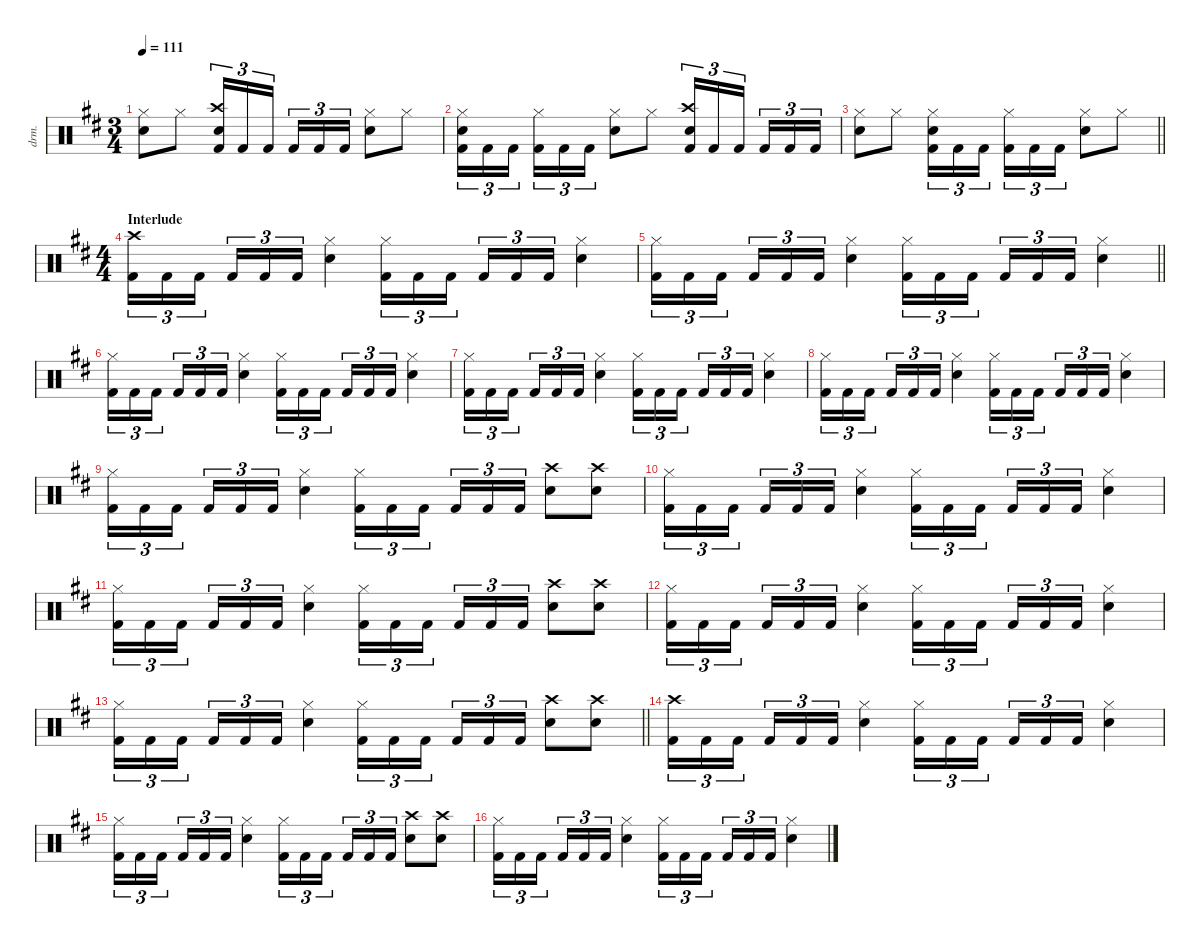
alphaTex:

\defaultSystemsLayout 4
\hideDynamics
\bracketExtendMode nobrackets
\otherSystemsTrackNameOrientation horizontal
\track ("Lars Ulrich" "drm.") {defaultSystemsLayout 4 instrument percussion}
\staff {score}
\articulation defaults
\ts (3 4)
\tempo 111
\clef neutral
\ks bminor
("Hi-Hat (closed)"{acc forcenatural} "Snare (hit) 2"{acc forcenatural}).8{dy f} "Hi-Hat (closed)"{acc forcenatural}.8 ("Crash high (hit)"{acc forcenatural} "Snare (hit) 2"{acc forcenatural} "Kick (hit) 2"{acc forcenatural}).16{tu (3 2)} "Kick (hit) 2"{acc forcenatural}.16{tu (3 2)} "Kick (hit) 2"{acc forcenatural}.16{tu (3 2)} "Kick (hit) 2"{acc forcenatural}.16{tu (3 2)} "Kick (hit) 2"{acc forcenatural}.16{tu (3 2)} "Kick (hit) 2"{acc forcenatural}.16{tu (3 2)} ("Hi-Hat (closed)"{acc forcenatural} "Snare (hit) 2"{acc forcenatural}).8 "Hi-Hat (closed)"{acc forcenatural}.8 |
("Hi-Hat (closed)"{acc forcenatural} "Snare (hit) 2"{acc forcenatural} "Kick (hit) 2"{acc forcenatural}).16{tu (3 2)} "Kick (hit) 2"{acc forcenatural}.16{tu (3 2)} "Kick (hit) 2"{acc forcenatural}.16{tu (3 2)} ("Hi-Hat (closed)"{acc forcenatural} "Kick (hit) 2"{acc forcenatural}).16{tu (3 2)} "Kick (hit) 2"{acc forcenatural}.16{tu (3 2)} "Kick (hit) 2"{acc forcenatural}.16{tu (3 2)} ("Hi-Hat (closed)"{acc forcenatural} "Snare (hit) 2"{acc forcenatural}).8 "Hi-Hat (closed)"{acc forcenatural}.8 ("Crash high (hit)"{acc forcenatural} "Snare (hit) 2"{acc forcenatural} "Kick (hit) 2"{acc forcenatural}).16{tu (3 2)} "Kick (hit) 2"{acc forcenatural}.16{tu (3 2)} "Kick (hit) 2"{acc forcenatural}.16{tu (3 2)} "Kick (hit) 2"{acc forcenatural}.16{tu (3 2)} "Kick (hit) 2"{acc forcenatural}.16{tu (3 2)} "Kick (hit) 2"{acc forcenatural}.16{tu (3 2)} |
\barLineRight lightlight
("Hi-Hat (closed)"{acc forcenatural} "Snare (hit) 2"{acc forcenatural}).8 "Hi-Hat (closed)"{acc forcenatural}.8 ("Hi-Hat (closed)"{acc forcenatural} "Snare (hit) 2"{acc forcenatural} "Kick (hit) 2"{acc forcenatural}).16{tu (3 2)} "Kick (hit) 2"{acc forcenatural}.16{tu (3 2)} "Kick (hit) 2"{acc forcenatural}.16{tu (3 2)} ("Hi-Hat (closed)"{acc forcenatural} "Kick (hit) 2"{acc forcenatural}).16{tu (3 2)} "Kick (hit) 2"{acc forcenatural}.16{tu (3 2)} "Kick (hit) 2"{acc forcenatural}.16{tu (3 2)} ("Hi-Hat (closed)"{acc forcenatural} "Snare (hit) 2"{acc forcenatural}).8 "Hi-Hat (closed)"{acc forcenatural}.8 |
\ts (4 4)
\beaming (8 2 2 2 2)
\section ("" "Interlude")
("Crash high (hit)"{acc forcenatural} "Kick (hit) 2"{acc forcenatural}).16{tu (3 2)} "Kick (hit) 2"{acc forcenatural}.16{tu (3 2)} "Kick (hit) 2"{acc forcenatural}.16{tu (3 2)} "Kick (hit) 2"{acc forcenatural}.16{tu (3 2)} "Kick (hit) 2"{acc forcenatural}.16{tu (3 2)} "Kick (hit) 2"{acc forcenatural}.16{tu (3 2)} ("Hi-Hat (closed)"{acc forcenatural} "Snare (hit) 2"{acc forcenatural}).4 ("Hi-Hat (closed)"{acc forcenatural} "Kick (hit) 2"{acc forcenatural}).16{tu (3 2)} "Kick (hit) 2"{acc forcenatural}.16{tu (3 2)} "Kick (hit) 2"{acc forcenatural}.16{tu (3 2)} "Kick (hit) 2"{acc forcenatural}.16{tu (3 2)} "Kick (hit) 2"{acc forcenatural}.16{tu (3 2)} "Kick (hit) 2"{acc forcenatural}.16{tu (3 2)} ("Hi-Hat (closed)"{acc forcenatural} "Snare (hit) 2"{acc forcenatural}).4 |
\barLineRight lightlight
("Hi-Hat (closed)"{acc forcenatural} "Kick (hit) 2"{acc forcenatural}).16{tu (3 2)} "Kick (hit) 2"{acc forcenatural}.16{tu (3 2)} "Kick (hit) 2"{acc forcenatural}.16{tu (3 2)} "Kick (hit) 2"{acc forcenatural}.16{tu (3 2)} "Kick (hit) 2"{acc forcenatural}.16{tu (3 2)} "Kick (hit) 2"{acc forcenatural}.16{tu (3 2)} ("Hi-Hat (closed)"{acc forcenatural} "Snare (hit) 2"{acc forcenatural}).4 ("Hi-Hat (closed)"{acc forcenatural} "Kick (hit) 2"{acc forcenatural}).16{tu (3 2)} "Kick (hit) 2"{acc forcenatural}.16{tu (3 2)} "Kick (hit) 2"{acc forcenatural}.16{tu (3 2)} "Kick (hit) 2"{acc forcenatural}.16{tu (3 2)} "Kick (hit) 2"{acc forcenatural}.16{tu (3 2)} "Kick (hit) 2"{acc forcenatural}.16{tu (3 2)} ("Hi-Hat (closed)"{acc forcenatural} "Snare (hit) 2"{acc forcenatural}).4 |
("Hi-Hat (closed)"{acc forcenatural} "Kick (hit) 2"{acc forcenatural}).16{tu (3 2)} "Kick (hit) 2"{acc forcenatural}.16{tu (3 2)} "Kick (hit) 2"{acc forcenatural}.16{tu (3 2)} "Kick (hit) 2"{acc forcenatural}.16{tu (3 2)} "Kick (hit) 2"{acc forcenatural}.16{tu (3 2)} "Kick (hit) 2"{acc forcenatural}.16{tu (3 2)} ("Hi-Hat (closed)"{acc forcenatural} "Snare (hit) 2"{acc forcenatural}).4 ("Hi-Hat (closed)"{acc forcenatural} "Kick (hit) 2"{acc forcenatural}).16{tu (3 2)} "Kick (hit) 2"{acc forcenatural}.16{tu (3 2)} "Kick (hit) 2"{acc forcenatural}.16{tu (3 2)} "Kick (hit) 2"{acc forcenatural}.16{tu (3 2)} "Kick (hit) 2"{acc forcenatural}.16{tu (3 2)} "Kick (hit) 2"{acc forcenatural}.16{tu (3 2)} ("Hi-Hat (closed)"{acc forcenatural} "Snare (hit) 2"{acc forcenatural}).4 |
("Hi-Hat (closed)"{acc forcenatural} "Kick (hit) 2"{acc forcenatural}).16{tu (3 2)} "Kick (hit) 2"{acc forcenatural}.16{tu (3 2)} "Kick (hit) 2"{acc forcenatural}.16{tu (3 2)} "Kick (hit) 2"{acc forcenatural}.16{tu (3 2)} "Kick (hit) 2"{acc forcenatural}.16{tu (3 2)} "Kick (hit) 2"{acc forcenatural}.16{tu (3 2)} ("Hi-Hat (closed)"{acc forcenatural} "Snare (hit) 2"{acc forcenatural}).4 ("Hi-Hat (closed)"{acc forcenatural} "Kick (hit) 2"{acc forcenatural}).16{tu (3 2)} "Kick (hit) 2"{acc forcenatural}.16{tu (3 2)} "Kick (hit) 2"{acc forcenatural}.16{tu (3 2)} "Kick (hit) 2"{acc forcenatural}.16{tu (3 2)} "Kick (hit) 2"{acc forcenatural}.16{tu (3 2)} "Kick (hit) 2"{acc forcenatural}.16{tu (3 2)} ("Hi-Hat (closed)"{acc forcenatural} "Snare (hit) 2"{acc forcenatural}).4 |
("Hi-Hat (closed)"{acc forcenatural} "Kick (hit) 2"{acc forcenatural}).16{tu (3 2)} "Kick (hit) 2"{acc forcenatural}.16{tu (3 2)} "Kick (hit) 2"{acc forcenatural}.16{tu (3 2)} "Kick (hit) 2"{acc forcenatural}.16{tu (3 2)} "Kick (hit) 2"{acc forcenatural}.16{tu (3 2)} "Kick (hit) 2"{acc forcenatural}.16{tu (3 2)} ("Hi-Hat (closed)"{acc forcenatural} "Snare (hit) 2"{acc forcenatural}).4 ("Hi-Hat (closed)"{acc forcenatural} "Kick (hit) 2"{acc forcenatural}).16{tu (3 2)} "Kick (hit) 2"{acc forcenatural}.16{tu (3 2)} "Kick (hit) 2"{acc forcenatural}.16{tu (3 2)} "Kick (hit) 2"{acc forcenatural}.16{tu (3 2)} "Kick (hit) 2"{acc forcenatural}.16{tu (3 2)} "Kick (hit) 2"{acc forcenatural}.16{tu (3 2)} ("Hi-Hat (closed)"{acc forcenatural} "Snare (hit) 2"{acc forcenatural}).4 |
("Hi-Hat (closed)"{acc forcenatural} "Kick (hit) 2"{acc forcenatural}).16{tu (3 2)} "Kick (hit) 2"{acc forcenatural}.16{tu (3 2)} "Kick (hit) 2"{acc forcenatural}.16{tu (3 2)} "Kick (hit) 2"{acc forcenatural}.16{tu (3 2)} "Kick (hit) 2"{acc forcenatural}.16{tu (3 2)} "Kick (hit) 2"{acc forcenatural}.16{tu (3 2)} ("Hi-Hat (closed)"{acc forcenatural} "Snare (hit) 2"{acc forcenatural}).4 ("Hi-Hat (closed)"{acc forcenatural} "Kick (hit) 2"{acc forcenatural}).16{tu (3 2)} "Kick (hit) 2"{acc forcenatural}.16{tu (3 2)} "Kick (hit) 2"{acc forcenatural}.16{tu (3 2)} "Kick (hit) 2"{acc forcenatural}.16{tu (3 2)} "Kick (hit) 2"{acc forcenatural}.16{tu (3 2)} "Kick (hit) 2"{acc forcenatural}.16{tu (3 2)} ("Crash high (hit)"{acc forcenatural} "Snare (hit) 2"{acc forcenatural}).8 ("Crash high (hit)"{acc forcenatural} "Snare (hit) 2"{acc forcenatural}).8 |
("Hi-Hat (closed)"{acc forcenatural} "Kick (hit) 2"{acc forcenatural}).16{tu (3 2)} "Kick (hit) 2"{acc forcenatural}.16{tu (3 2)} "Kick (hit) 2"{acc forcenatural}.16{tu (3 2)} "Kick (hit) 2"{acc forcenatural}.16{tu (3 2)} "Kick (hit) 2"{acc forcenatural}.16{tu (3 2)} "Kick (hit) 2"{acc forcenatural}.16{tu (3 2)} ("Hi-Hat (closed)"{acc forcenatural} "Snare (hit) 2"{acc forcenatural}).4 ("Hi-Hat (closed)"{acc forcenatural} "Kick (hit) 2"{acc forcenatural}).16{tu (3 2)} "Kick (hit) 2"{acc forcenatural}.16{tu (3 2)} "Kick (hit) 2"{acc forcenatural}.16{tu (3 2)} "Kick (hit) 2"{acc forcenatural}.16{tu (3 2)} "Kick (hit) 2"{acc forcenatural}.16{tu (3 2)} "Kick (hit) 2"{acc forcenatural}.16{tu (3 2)} ("Hi-Hat (closed)"{acc forcenatural} "Snare (hit) 2"{acc forcenatural}).4 |
("Hi-Hat (closed)"{acc forcenatural} "Kick (hit) 2"{acc forcenatural}).16{tu (3 2)} "Kick (hit) 2"{acc forcenatural}.16{tu (3 2)} "Kick (hit) 2"{acc forcenatural}.16{tu (3 2)} "Kick (hit) 2"{acc forcenatural}.16{tu (3 2)} "Kick (hit) 2"{acc forcenatural}.16{tu (3 2)} "Kick (hit) 2"{acc forcenatural}.16{tu (3 2)} ("Hi-Hat (closed)"{acc forcenatural} "Snare (hit) 2"{acc forcenatural}).4 ("Hi-Hat (closed)"{acc forcenatural} "Kick (hit) 2"{acc forcenatural}).16{tu (3 2)} "Kick (hit) 2"{acc forcenatural}.16{tu (3 2)} "Kick (hit) 2"{acc forcenatural}.16{tu (3 2)} "Kick (hit) 2"{acc forcenatural}.16{tu (3 2)} "Kick (hit) 2"{acc forcenatural}.16{tu (3 2)} "Kick (hit) 2"{acc forcenatural}.16{tu (3 2)} ("Crash high (hit)"{acc forcenatural} "Snare (hit) 2"{acc forcenatural}).8 ("Crash high (hit)"{acc forcenatural} "Snare (hit) 2"{acc forcenatural}).8 |
("Hi-Hat (closed)"{acc forcenatural} "Kick (hit) 2"{acc forcenatural}).16{tu (3 2)} "Kick (hit) 2"{acc forcenatural}.16{tu (3 2)} "Kick (hit) 2"{acc forcenatural}.16{tu (3 2)} "Kick (hit) 2"{acc forcenatural}.16{tu (3 2)} "Kick (hit) 2"{acc forcenatural}.16{tu (3 2)} "Kick (hit) 2"{acc forcenatural}.16{tu (3 2)} ("Hi-Hat (closed)"{acc forcenatural} "Snare (hit) 2"{acc forcenatural}).4 ("Hi-Hat (closed)"{acc forcenatural} "Kick (hit) 2"{acc forcenatural}).16{tu (3 2)} "Kick (hit) 2"{acc forcenatural}.16{tu (3 2)} "Kick (hit) 2"{acc forcenatural}.16{tu (3 2)} "Kick (hit) 2"{acc forcenatural}.16{tu (3 2)} "Kick (hit) 2"{acc forcenatural}.16{tu (3 2)} "Kick (hit) 2"{acc forcenatural}.16{tu (3 2)} ("Hi-Hat (closed)"{acc forcenatural} "Snare (hit) 2"{acc forcenatural}).4 |
\barLineRight lightlight
("Hi-Hat (closed)"{acc forcenatural} "Kick (hit) 2"{acc forcenatural}).16{tu (3 2)} "Kick (hit) 2"{acc forcenatural}.16{tu (3 2)} "Kick (hit) 2"{acc forcenatural}.16{tu (3 2)} "Kick (hit) 2"{acc forcenatural}.16{tu (3 2)} "Kick (hit) 2"{acc forcenatural}.16{tu (3 2)} "Kick (hit) 2"{acc forcenatural}.16{tu (3 2)} ("Hi-Hat (closed)"{acc forcenatural} "Snare (hit) 2"{acc forcenatural}).4 ("Hi-Hat (closed)"{acc forcenatural} "Kick (hit) 2"{acc forcenatural}).16{tu (3 2)} "Kick (hit) 2"{acc forcenatural}.16{tu (3 2)} "Kick (hit) 2"{acc forcenatural}.16{tu (3 2)} "Kick (hit) 2"{acc forcenatural}.16{tu (3 2)} "Kick (hit) 2"{acc forcenatural}.16{tu (3 2)} "Kick (hit) 2"{acc forcenatural}.16{tu (3 2)} ("Crash high (hit)"{acc forcenatural} "Snare (hit) 2"{acc forcenatural}).8 ("Crash high (hit)"{acc forcenatural} "Snare (hit) 2"{acc forcenatural}).8 |
("Crash high (hit)"{acc forcenatural} "Kick (hit) 2"{acc forcenatural}).16{tu (3 2)} "Kick (hit) 2"{acc forcenatural}.16{tu (3 2)} "Kick (hit) 2"{acc forcenatural}.16{tu (3 2)} "Kick (hit) 2"{acc forcenatural}.16{tu (3 2)} "Kick (hit) 2"{acc forcenatural}.16{tu (3 2)} "Kick (hit) 2"{acc forcenatural}.16{tu (3 2)} ("Hi-Hat (closed)"{acc forcenatural} "Snare (hit) 2"{acc forcenatural}).4 ("Hi-Hat (closed)"{acc forcenatural} "Kick (hit) 2"{acc forcenatural}).16{tu (3 2)} "Kick (hit) 2"{acc forcenatural}.16{tu (3 2)} "Kick (hit) 2"{acc forcenatural}.16{tu (3 2)} "Kick (hit) 2"{acc forcenatural}.16{tu (3 2)} "Kick (hit) 2"{acc forcenatural}.16{tu (3 2)} "Kick (hit) 2"{acc forcenatural}.16{tu (3 2)} ("Hi-Hat (closed)"{acc forcenatural} "Snare (hit) 2"{acc forcenatural}).4 |
("Hi-Hat (closed)"{acc forcenatural} "Kick (hit) 2"{acc forcenatural}).16{tu (3 2)} "Kick (hit) 2"{acc forcenatural}.16{tu (3 2)} "Kick (hit) 2"{acc forcenatural}.16{tu (3 2)} "Kick (hit) 2"{acc forcenatural}.16{tu (3 2)} "Kick (hit) 2"{acc forcenatural}.16{tu (3 2)} "Kick (hit) 2"{acc forcenatural}.16{tu (3 2)} ("Hi-Hat (closed)"{acc forcenatural} "Snare (hit) 2"{acc forcenatural}).4 ("Hi-Hat (closed)"{acc forcenatural} "Kick (hit) 2"{acc forcenatural}).16{tu (3 2)} "Kick (hit) 2"{acc forcenatural}.16{tu (3 2)} "Kick (hit) 2"{acc forcenatural}.16{tu (3 2)} "Kick (hit) 2"{acc forcenatural}.16{tu (3 2)} "Kick (hit) 2"{acc forcenatural}.16{tu (3 2)} "Kick (hit) 2"{acc forcenatural}.16{tu (3 2)} ("Crash high (hit)"{acc forcenatural} "Snare (hit) 2"{acc forcenatural}).8 ("Crash high (hit)"{acc forcenatural} "Snare (hit) 2"{acc forcenatural}).8 |
("Hi-Hat (closed)"{acc forcenatural} "Kick (hit) 2"{acc forcenatural}).16{tu (3 2)} "Kick (hit) 2"{acc forcenatural}.16{tu (3 2)} "Kick (hit) 2"{acc forcenatural}.16{tu (3 2)} "Kick (hit) 2"{acc forcenatural}.16{tu (3 2)} "Kick (hit) 2"{acc forcenatural}.16{tu (3 2)} "Kick (hit) 2"{acc forcenatural}.16{tu (3 2)} ("Hi-Hat (closed)"{acc forcenatural} "Snare (hit) 2"{acc forcenatural}).4 ("Hi-Hat (closed)"{acc forcenatural} "Kick (hit) 2"{acc forcenatural}).16{tu (3 2)} "Kick (hit) 2"{acc forcenatural}.16{tu (3 2)} "Kick (hit) 2"{acc forcenatural}.16{tu (3 2)} "Kick (hit) 2"{acc forcenatural}.16{tu (3 2)} "Kick (hit) 2"{acc forcenatural}.16{tu (3 2)} "Kick (hit) 2"{acc forcenatural}.16{tu (3 2)} ("Hi-Hat (closed)"{acc forcenatural} "Snare (hit) 2"{acc forcenatural}).4
